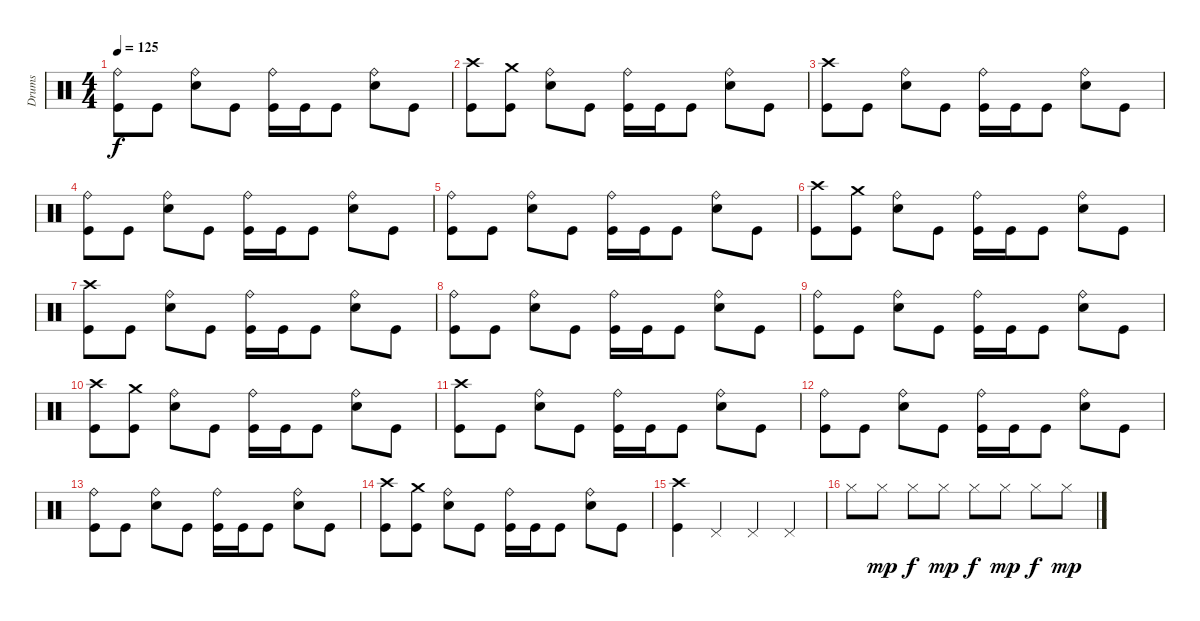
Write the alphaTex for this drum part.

\track ("Drums" "Drums") {instrument percussion}
\staff {score}
\articulation defaults
\ts (4 4)
\tempo 125
\clef neutral
\ks c
("Ride (bell)" "Kick (hit)").8{dy f} "Kick (hit)".8 ("Ride (bell)" "Snare (hit) 2").8 "Kick (hit)".8 ("Ride (bell)" "Kick (hit)").16 "Kick (hit)".16 "Kick (hit)".8 ("Ride (bell)" "Snare (hit) 2").8 "Kick (hit)".8 |
("Crash high (hit)" "Kick (hit)").8 ("Crash medium (hit)" "Kick (hit)").8 ("Ride (bell)" "Snare (hit) 2").8 "Kick (hit)".8 ("Ride (bell)" "Kick (hit)").16 "Kick (hit)".16 "Kick (hit)".8 ("Ride (bell)" "Snare (hit) 2").8 "Kick (hit)".8 |
("Crash high (hit)" "Kick (hit)").8 "Kick (hit)".8 ("Ride (bell)" "Snare (hit) 2").8 "Kick (hit)".8 ("Ride (bell)" "Kick (hit)").16 "Kick (hit)".16 "Kick (hit)".8 ("Ride (bell)" "Snare (hit) 2").8 "Kick (hit)".8 |
("Ride (bell)" "Kick (hit)").8 "Kick (hit)".8 ("Ride (bell)" "Snare (hit) 2").8 "Kick (hit)".8 ("Ride (bell)" "Kick (hit)").16 "Kick (hit)".16 "Kick (hit)".8 ("Ride (bell)" "Snare (hit) 2").8 "Kick (hit)".8 |
("Ride (bell)" "Kick (hit)").8 "Kick (hit)".8 ("Ride (bell)" "Snare (hit) 2").8 "Kick (hit)".8 ("Ride (bell)" "Kick (hit)").16 "Kick (hit)".16 "Kick (hit)".8 ("Ride (bell)" "Snare (hit) 2").8 "Kick (hit)".8 |
("Crash high (hit)" "Kick (hit)").8 ("Crash medium (hit)" "Kick (hit)").8 ("Ride (bell)" "Snare (hit) 2").8 "Kick (hit)".8 ("Ride (bell)" "Kick (hit)").16 "Kick (hit)".16 "Kick (hit)".8 ("Ride (bell)" "Snare (hit) 2").8 "Kick (hit)".8 |
("Crash high (hit)" "Kick (hit)").8 "Kick (hit)".8 ("Ride (bell)" "Snare (hit) 2").8 "Kick (hit)".8 ("Ride (bell)" "Kick (hit)").16 "Kick (hit)".16 "Kick (hit)".8 ("Ride (bell)" "Snare (hit) 2").8 "Kick (hit)".8 |
("Ride (bell)" "Kick (hit)").8 "Kick (hit)".8 ("Ride (bell)" "Snare (hit) 2").8 "Kick (hit)".8 ("Ride (bell)" "Kick (hit)").16 "Kick (hit)".16 "Kick (hit)".8 ("Ride (bell)" "Snare (hit) 2").8 "Kick (hit)".8 |
("Ride (bell)" "Kick (hit)").8 "Kick (hit)".8 ("Ride (bell)" "Snare (hit) 2").8 "Kick (hit)".8 ("Ride (bell)" "Kick (hit)").16 "Kick (hit)".16 "Kick (hit)".8 ("Ride (bell)" "Snare (hit) 2").8 "Kick (hit)".8 |
("Crash high (hit)" "Kick (hit)").8 ("Crash medium (hit)" "Kick (hit)").8 ("Ride (bell)" "Snare (hit) 2").8 "Kick (hit)".8 ("Ride (bell)" "Kick (hit)").16 "Kick (hit)".16 "Kick (hit)".8 ("Ride (bell)" "Snare (hit) 2").8 "Kick (hit)".8 |
("Crash high (hit)" "Kick (hit)").8 "Kick (hit)".8 ("Ride (bell)" "Snare (hit) 2").8 "Kick (hit)".8 ("Ride (bell)" "Kick (hit)").16 "Kick (hit)".16 "Kick (hit)".8 ("Ride (bell)" "Snare (hit) 2").8 "Kick (hit)".8 |
("Ride (bell)" "Kick (hit)").8 "Kick (hit)".8 ("Ride (bell)" "Snare (hit) 2").8 "Kick (hit)".8 ("Ride (bell)" "Kick (hit)").16 "Kick (hit)".16 "Kick (hit)".8 ("Ride (bell)" "Snare (hit) 2").8 "Kick (hit)".8 |
("Ride (bell)" "Kick (hit)").8 "Kick (hit)".8 ("Ride (bell)" "Snare (hit) 2").8 "Kick (hit)".8 ("Ride (bell)" "Kick (hit)").16 "Kick (hit)".16 "Kick (hit)".8 ("Ride (bell)" "Snare (hit) 2").8 "Kick (hit)".8 |
("Crash high (hit)" "Kick (hit)").8 ("Crash medium (hit)" "Kick (hit)").8 ("Ride (bell)" "Snare (hit) 2").8 "Kick (hit)".8 ("Ride (bell)" "Kick (hit)").16 "Kick (hit)".16 "Kick (hit)".8 ("Ride (bell)" "Snare (hit) 2").8 "Kick (hit)".8 |
("Crash high (hit)" "Kick (hit)").4 "Pedal Hi-Hat (hit)".4 "Pedal Hi-Hat (hit)".4 "Pedal Hi-Hat (hit)".4 |
"Hi-Hat (closed)".8 "Hi-Hat (closed)".8{dy mp} "Hi-Hat (closed)".8{dy f} "Hi-Hat (closed)".8{dy mp} "Hi-Hat (closed)".8{dy f} "Hi-Hat (closed)".8{dy mp} "Hi-Hat (closed)".8{dy f} "Hi-Hat (closed)".8{dy mp}
